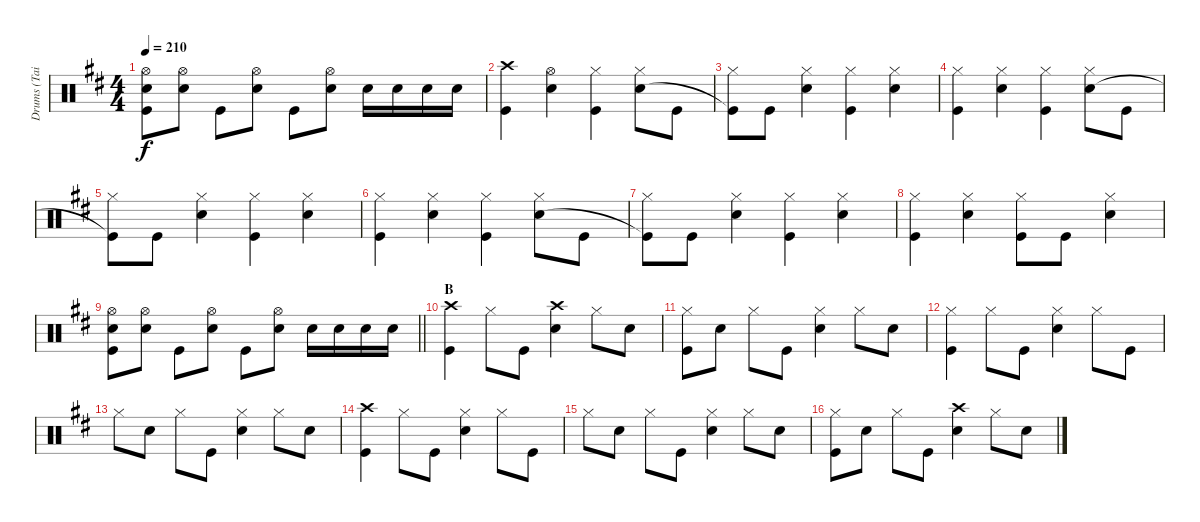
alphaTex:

\track ("Drums (Tainaka Ritsu)" "Drums (Tai") {instrument percussion}
\staff {score}
\articulation defaults
\ts (4 4)
\tempo 210
\clef neutral
\ks d
("Hi-Hat (open)" "Snare (hit) 2" "Kick (hit)").8{dy f} ("Hi-Hat (open)" "Snare (hit) 2").8 "Kick (hit)".8 ("Hi-Hat (open)" "Snare (hit) 2").8 "Kick (hit)".8 ("Hi-Hat (open)" "Snare (hit) 2").8 "Snare (hit) 2".16 "Snare (hit) 2".16 "Snare (hit) 2".16 "Snare (hit) 2".16 |
("Crash high (hit)" "Kick (hit)").4 ("Hi-Hat (open)" "Snare (hit) 2").4 ("Hi-Hat (closed)" "Kick (hit)").4 ("Hi-Hat (closed)" "Snare (hit) 2").8 "Kick (hit)".8 |
("Hi-Hat (closed)" "Kick (hit)"{t}).8 "Kick (hit)".8 ("Hi-Hat (closed)" "Snare (hit) 2").4 ("Hi-Hat (closed)" "Kick (hit)").4 ("Hi-Hat (closed)" "Snare (hit) 2").4 |
("Hi-Hat (closed)" "Kick (hit)").4 ("Hi-Hat (closed)" "Snare (hit) 2").4 ("Hi-Hat (closed)" "Kick (hit)").4 ("Hi-Hat (closed)" "Snare (hit) 2").8 "Kick (hit)".8 |
("Hi-Hat (closed)" "Kick (hit)"{t}).8 "Kick (hit)".8 ("Hi-Hat (closed)" "Snare (hit) 2").4 ("Hi-Hat (closed)" "Kick (hit)").4 ("Hi-Hat (closed)" "Snare (hit) 2").4 |
("Hi-Hat (closed)" "Kick (hit)").4 ("Hi-Hat (closed)" "Snare (hit) 2").4 ("Hi-Hat (closed)" "Kick (hit)").4 ("Hi-Hat (closed)" "Snare (hit) 2").8 "Kick (hit)".8 |
("Hi-Hat (closed)" "Kick (hit)"{t}).8 "Kick (hit)".8 ("Hi-Hat (closed)" "Snare (hit) 2").4 ("Hi-Hat (closed)" "Kick (hit)").4 ("Hi-Hat (closed)" "Snare (hit) 2").4 |
("Hi-Hat (closed)" "Kick (hit)").4 ("Hi-Hat (closed)" "Snare (hit) 2").4 ("Hi-Hat (closed)" "Kick (hit)").8 "Kick (hit)".8 ("Hi-Hat (closed)" "Snare (hit) 2").4 |
\barLineRight lightlight
("Hi-Hat (open)" "Snare (hit) 2" "Kick (hit)").8 ("Hi-Hat (open)" "Snare (hit) 2").8 "Kick (hit)".8 ("Hi-Hat (open)" "Snare (hit) 2").8 "Kick (hit)".8 ("Hi-Hat (open)" "Snare (hit) 2").8 "Snare (hit) 2".16 "Snare (hit) 2".16 "Snare (hit) 2".16 "Snare (hit) 2".16 |
\section ("" "B")
("Crash high (hit)" "Kick (hit)").4 "Hi-Hat (closed)".8 "Kick (hit)".8 ("Crash high (hit)" "Snare (hit) 2").4 "Hi-Hat (closed)".8 "Snare (hit) 2".8 |
("Hi-Hat (closed)" "Kick (hit)").8 "Snare (hit) 2".8 "Hi-Hat (closed)".8 "Kick (hit)".8 ("Hi-Hat (closed)" "Snare (hit) 2").4 "Hi-Hat (closed)".8 "Snare (hit) 2".8 |
("Hi-Hat (closed)" "Kick (hit)").4 "Hi-Hat (closed)".8 "Kick (hit)".8 ("Hi-Hat (closed)" "Snare (hit) 2").4 "Hi-Hat (closed)".8 "Kick (hit)".8 |
"Hi-Hat (closed)".8 "Snare (hit) 2".8 "Hi-Hat (closed)".8 "Kick (hit)".8 ("Hi-Hat (closed)" "Snare (hit) 2").4 "Hi-Hat (closed)".8 "Snare (hit) 2".8 |
("Crash high (hit)" "Kick (hit)").4 "Hi-Hat (closed)".8 "Kick (hit)".8 ("Hi-Hat (closed)" "Snare (hit) 2").4 "Hi-Hat (closed)".8 "Kick (hit)".8 |
"Hi-Hat (closed)".8 "Snare (hit) 2".8 "Hi-Hat (closed)".8 "Kick (hit)".8 ("Hi-Hat (closed)" "Snare (hit) 2").4 "Hi-Hat (closed)".8 "Snare (hit) 2".8 |
("Hi-Hat (closed)" "Kick (hit)").8 "Snare (hit) 2".8 "Hi-Hat (closed)".8 "Kick (hit)".8 ("Crash high (hit)" "Snare (hit) 2").4 "Hi-Hat (closed)".8 "Snare (hit) 2".8
